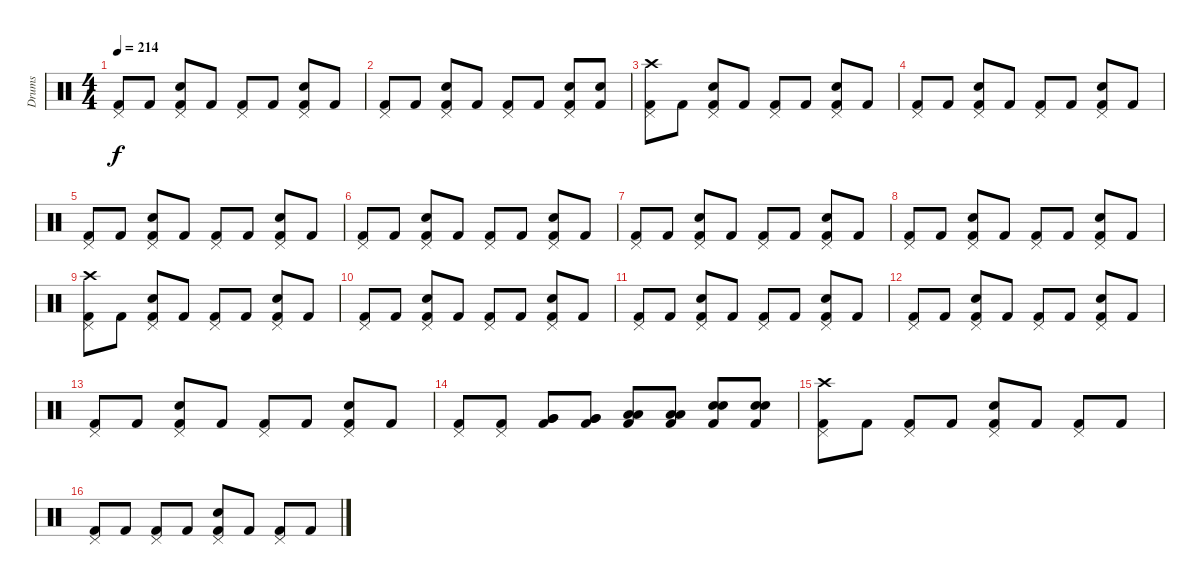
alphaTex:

\track ("Drums" "Drums") {instrument percussion}
\staff {score}
\articulation defaults
\ts (4 4)
\tempo 214
\clef neutral
\ks c
("Pedal Hi-Hat (hit)" "Kick (hit) 2").8{dy f} "Kick (hit) 2".8 ("Pedal Hi-Hat (hit)" "Electric Snare (hit)" "Kick (hit) 2").8 "Kick (hit) 2".8 ("Pedal Hi-Hat (hit)" "Kick (hit) 2").8 "Kick (hit) 2".8 ("Pedal Hi-Hat (hit)" "Electric Snare (hit)" "Kick (hit) 2").8 "Kick (hit) 2".8 |
("Pedal Hi-Hat (hit)" "Kick (hit) 2").8 "Kick (hit) 2".8 ("Pedal Hi-Hat (hit)" "Electric Snare (hit)" "Kick (hit) 2").8 "Kick (hit) 2".8 ("Pedal Hi-Hat (hit)" "Kick (hit) 2").8 "Kick (hit) 2".8 ("Pedal Hi-Hat (hit)" "Electric Snare (hit)" "Kick (hit) 2").8 ("Electric Snare (hit)" "Kick (hit) 2").8 |
("Pedal Hi-Hat (hit)" "Crash high (hit)" "Kick (hit) 2").8 "Kick (hit) 2".8 ("Pedal Hi-Hat (hit)" "Electric Snare (hit)" "Kick (hit) 2").8 "Kick (hit) 2".8 ("Pedal Hi-Hat (hit)" "Kick (hit) 2").8 "Kick (hit) 2".8 ("Pedal Hi-Hat (hit)" "Electric Snare (hit)" "Kick (hit) 2").8 "Kick (hit) 2".8 |
("Pedal Hi-Hat (hit)" "Kick (hit) 2").8 "Kick (hit) 2".8 ("Pedal Hi-Hat (hit)" "Electric Snare (hit)" "Kick (hit) 2").8 "Kick (hit) 2".8 ("Pedal Hi-Hat (hit)" "Kick (hit) 2").8 "Kick (hit) 2".8 ("Pedal Hi-Hat (hit)" "Electric Snare (hit)" "Kick (hit) 2").8 "Kick (hit) 2".8 |
("Pedal Hi-Hat (hit)" "Kick (hit) 2").8 "Kick (hit) 2".8 ("Pedal Hi-Hat (hit)" "Electric Snare (hit)" "Kick (hit) 2").8 "Kick (hit) 2".8 ("Pedal Hi-Hat (hit)" "Kick (hit) 2").8 "Kick (hit) 2".8 ("Pedal Hi-Hat (hit)" "Electric Snare (hit)" "Kick (hit) 2").8 "Kick (hit) 2".8 |
("Pedal Hi-Hat (hit)" "Kick (hit) 2").8 "Kick (hit) 2".8 ("Pedal Hi-Hat (hit)" "Electric Snare (hit)" "Kick (hit) 2").8 "Kick (hit) 2".8 ("Pedal Hi-Hat (hit)" "Kick (hit) 2").8 "Kick (hit) 2".8 ("Pedal Hi-Hat (hit)" "Electric Snare (hit)" "Kick (hit) 2").8 "Kick (hit) 2".8 |
("Pedal Hi-Hat (hit)" "Kick (hit) 2").8 "Kick (hit) 2".8 ("Pedal Hi-Hat (hit)" "Electric Snare (hit)" "Kick (hit) 2").8 "Kick (hit) 2".8 ("Pedal Hi-Hat (hit)" "Kick (hit) 2").8 "Kick (hit) 2".8 ("Pedal Hi-Hat (hit)" "Electric Snare (hit)" "Kick (hit) 2").8 "Kick (hit) 2".8 |
("Pedal Hi-Hat (hit)" "Kick (hit) 2").8 "Kick (hit) 2".8 ("Pedal Hi-Hat (hit)" "Electric Snare (hit)" "Kick (hit) 2").8 "Kick (hit) 2".8 ("Pedal Hi-Hat (hit)" "Kick (hit) 2").8 "Kick (hit) 2".8 ("Pedal Hi-Hat (hit)" "Electric Snare (hit)" "Kick (hit) 2").8 "Kick (hit) 2".8 |
("Pedal Hi-Hat (hit)" "Crash high (hit)" "Kick (hit) 2").8 "Kick (hit) 2".8 ("Pedal Hi-Hat (hit)" "Electric Snare (hit)" "Kick (hit) 2").8 "Kick (hit) 2".8 ("Pedal Hi-Hat (hit)" "Kick (hit) 2").8 "Kick (hit) 2".8 ("Pedal Hi-Hat (hit)" "Electric Snare (hit)" "Kick (hit) 2").8 "Kick (hit) 2".8 |
("Pedal Hi-Hat (hit)" "Kick (hit) 2").8 "Kick (hit) 2".8 ("Pedal Hi-Hat (hit)" "Electric Snare (hit)" "Kick (hit) 2").8 "Kick (hit) 2".8 ("Pedal Hi-Hat (hit)" "Kick (hit) 2").8 "Kick (hit) 2".8 ("Pedal Hi-Hat (hit)" "Electric Snare (hit)" "Kick (hit) 2").8 "Kick (hit) 2".8 |
("Pedal Hi-Hat (hit)" "Kick (hit) 2").8 "Kick (hit) 2".8 ("Pedal Hi-Hat (hit)" "Electric Snare (hit)" "Kick (hit) 2").8 "Kick (hit) 2".8 ("Pedal Hi-Hat (hit)" "Kick (hit) 2").8 "Kick (hit) 2".8 ("Pedal Hi-Hat (hit)" "Electric Snare (hit)" "Kick (hit) 2").8 "Kick (hit) 2".8 |
("Pedal Hi-Hat (hit)" "Kick (hit) 2").8 "Kick (hit) 2".8 ("Pedal Hi-Hat (hit)" "Electric Snare (hit)" "Kick (hit) 2").8 "Kick (hit) 2".8 ("Pedal Hi-Hat (hit)" "Kick (hit) 2").8 "Kick (hit) 2".8 ("Pedal Hi-Hat (hit)" "Electric Snare (hit)" "Kick (hit) 2").8 "Kick (hit) 2".8 |
("Pedal Hi-Hat (hit)" "Kick (hit) 2").8 "Kick (hit) 2".8 ("Pedal Hi-Hat (hit)" "Electric Snare (hit)" "Kick (hit) 2").8 "Kick (hit) 2".8 ("Pedal Hi-Hat (hit)" "Kick (hit) 2").8 "Kick (hit) 2".8 ("Pedal Hi-Hat (hit)" "Electric Snare (hit)" "Kick (hit) 2").8 "Kick (hit) 2".8 |
("Pedal Hi-Hat (hit)" "Kick (hit) 2").8 ("Pedal Hi-Hat (hit)" "Kick (hit) 2").8 ("Very Low Tom (hit)" "Very Low Tom (hit)" "Kick (hit) 2").8 ("Very Low Tom (hit)" "Very Low Tom (hit)" "Kick (hit) 2").8 ("Low Floor Tom (hit)" "Low Floor Tom (hit)" "Kick (hit) 2").8 ("Low Floor Tom (hit)" "Low Floor Tom (hit)" "Kick (hit) 2").8 ("Electric Snare (hit)" "Electric Snare (hit)" "Kick (hit) 2").8 ("Electric Snare (hit)" "Electric Snare (hit)" "Kick (hit) 2").8 |
("Pedal Hi-Hat (hit)" "Crash high (hit)" "Kick (hit) 2").8 "Kick (hit) 2".8 ("Pedal Hi-Hat (hit)" "Kick (hit) 2").8 "Kick (hit) 2".8 ("Pedal Hi-Hat (hit)" "Electric Snare (hit)" "Kick (hit) 2").8 "Kick (hit) 2".8 ("Pedal Hi-Hat (hit)" "Kick (hit) 2").8 "Kick (hit) 2".8 |
("Pedal Hi-Hat (hit)" "Kick (hit) 2").8 "Kick (hit) 2".8 ("Pedal Hi-Hat (hit)" "Kick (hit) 2").8 "Kick (hit) 2".8 ("Pedal Hi-Hat (hit)" "Electric Snare (hit)" "Kick (hit) 2").8 "Kick (hit) 2".8 ("Pedal Hi-Hat (hit)" "Kick (hit) 2").8 "Kick (hit) 2".8
